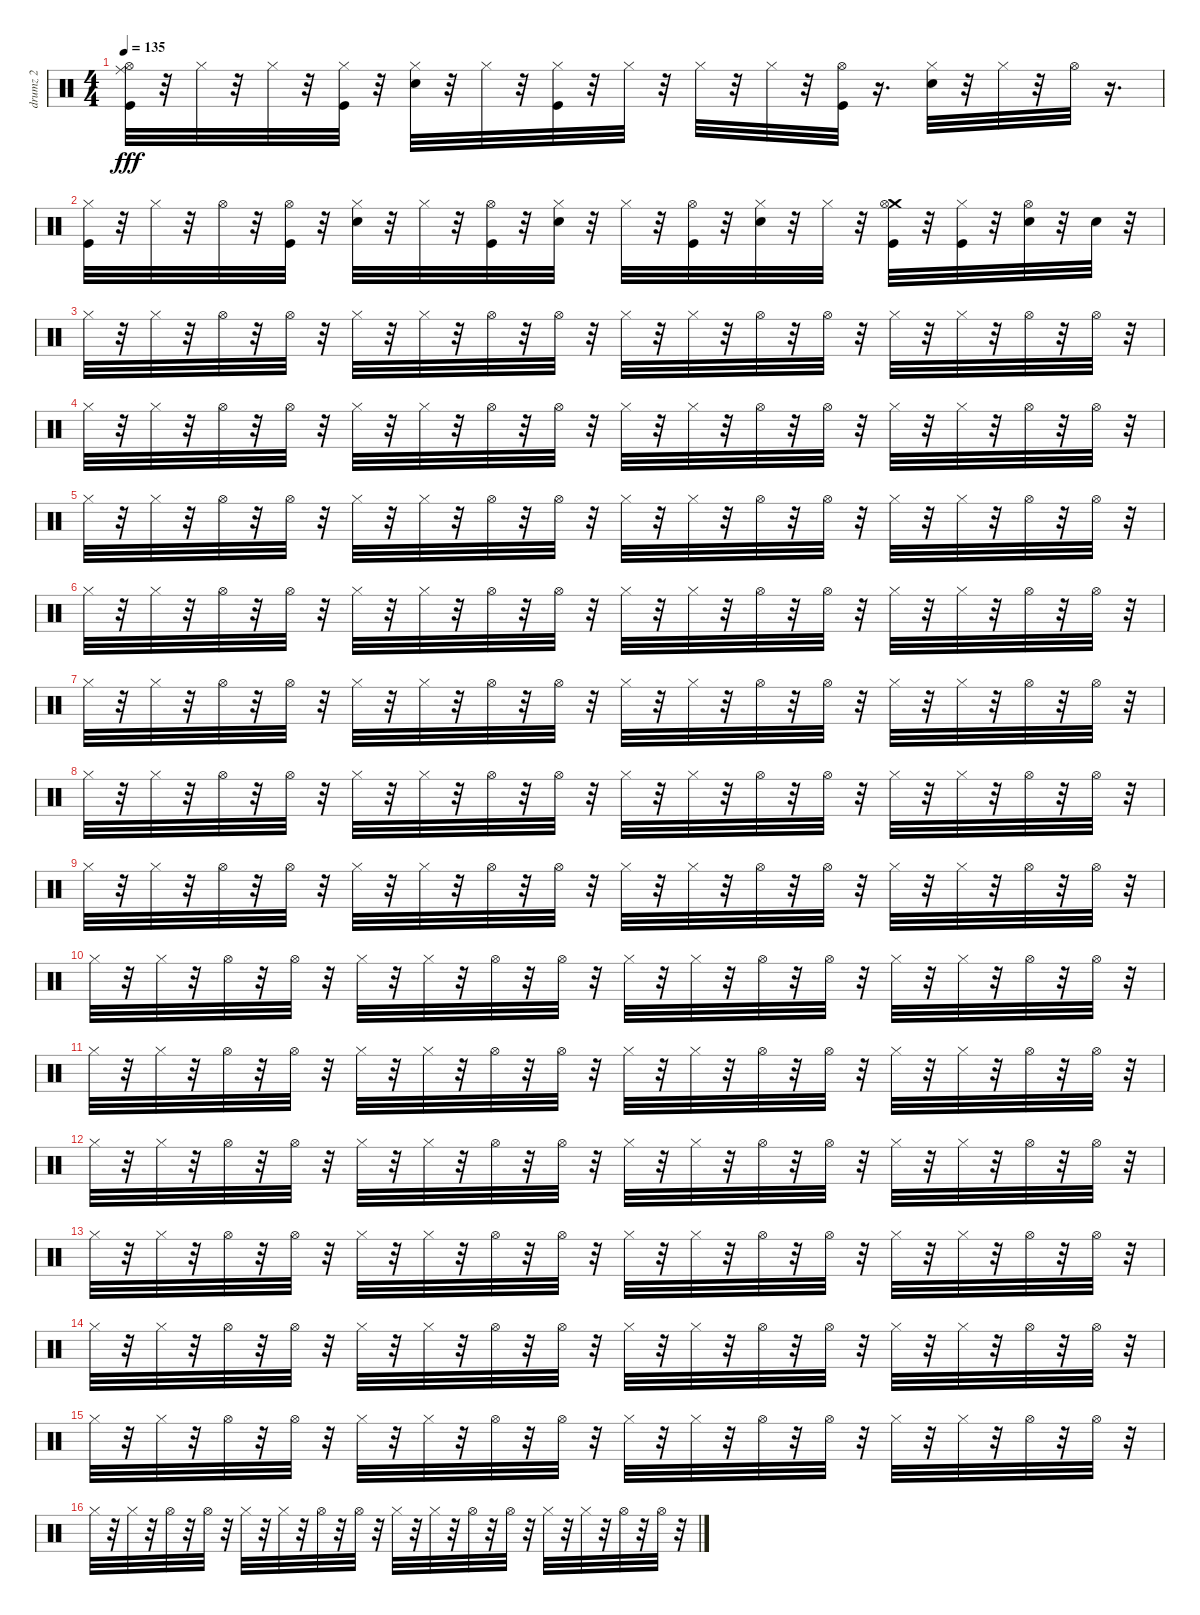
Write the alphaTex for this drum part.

\track ("drumz 2" "drumz 2") {instrument percussion}
\staff {score}
\articulation defaults
\ts (4 4)
\tempo 135
\clef neutral
\ks c
("Ride (middle)" "Hi-Hat (open)" "Kick (hit)").32{dy fff} r.32 "Hi-Hat (closed)".32 r.32 "Hi-Hat (closed)".32 r.32 ("Hi-Hat (closed)" "Kick (hit)").32 r.32 ("Hi-Hat (closed)" "Electric Snare (hit)").32 r.32 "Hi-Hat (closed)".32 r.32 ("Kick (hit)" "Hi-Hat (closed)").32 r.32 "Hi-Hat (closed)".32 r.32 "Hi-Hat (closed)".32 r.32 "Hi-Hat (closed)".32 r.32 ("Kick (hit)" "Hi-Hat (open)").32 r.16{d} ("Electric Snare (hit)" "Hi-Hat (closed)").32 r.32 "Hi-Hat (closed)".32 r.32 "Hi-Hat (open)".32 r.16{d} |
("Hi-Hat (closed)" "Kick (hit)").32 r.32 "Hi-Hat (closed)".32 r.32 "Hi-Hat (open)".32 r.32 ("Hi-Hat (open)" "Kick (hit)").32 r.32 ("Hi-Hat (closed)" "Electric Snare (hit)").32 r.32 "Hi-Hat (closed)".32 r.32 ("Kick (hit)" "Hi-Hat (open)").32 r.32 ("Electric Snare (hit)" "Hi-Hat (closed)").32 r.32 "Hi-Hat (closed)".32 r.32 ("Hi-Hat (open)" "Kick (hit)").32 r.32 ("Hi-Hat (closed)" "Electric Snare (hit)").32 r.32 "Hi-Hat (closed)".32 r.32 ("Crash medium (hit)" "Hi-Hat (open)" "Kick (hit)").32 r.32 ("Hi-Hat (closed)" "Kick (hit)").32 r.32 ("Hi-Hat (open)" "Electric Snare (hit)").32 r.32 "Electric Snare (hit)".32 r.32 |
"Hi-Hat (closed)".32{balance 0} r.32 "Hi-Hat (closed)".32{balance 0} r.32 "Hi-Hat (open)".32{balance 1} r.32 "Hi-Hat (open)".32{balance 1} r.32 "Hi-Hat (closed)".32{balance 2} r.32 "Hi-Hat (closed)".32{balance 2} r.32 "Hi-Hat (open)".32{balance 3} r.32 "Hi-Hat (open)".32{balance 3} r.32 "Hi-Hat (closed)".32{balance 4} r.32 "Hi-Hat (closed)".32{balance 4} r.32 "Hi-Hat (open)".32{balance 5} r.32 "Hi-Hat (open)".32{balance 5} r.32 "Hi-Hat (closed)".32{balance 6} r.32 "Hi-Hat (closed)".32{balance 6} r.32 "Hi-Hat (open)".32{balance 7} r.32 "Hi-Hat (open)".32{balance 7} r.32 |
"Hi-Hat (closed)".32{balance 8} r.32 "Hi-Hat (closed)".32{balance 8} r.32 "Hi-Hat (open)".32{balance 9} r.32 "Hi-Hat (open)".32{balance 9} r.32 "Hi-Hat (closed)".32{balance 10} r.32 "Hi-Hat (closed)".32{balance 10} r.32 "Hi-Hat (open)".32{balance 11} r.32 "Hi-Hat (open)".32{balance 11} r.32 "Hi-Hat (closed)".32{balance 12} r.32 "Hi-Hat (closed)".32{balance 12} r.32 "Hi-Hat (open)".32{balance 13} r.32 "Hi-Hat (open)".32{balance 13} r.32 "Hi-Hat (closed)".32{balance 14} r.32 "Hi-Hat (closed)".32{balance 14} r.32 "Hi-Hat (open)".32{balance 15} r.32 "Hi-Hat (open)".32{balance 15} r.32 |
"Hi-Hat (closed)".32{balance 16} r.32 "Hi-Hat (closed)".32{balance 16} r.32 "Hi-Hat (open)".32{balance 15} r.32 "Hi-Hat (open)".32{balance 14} r.32 "Hi-Hat (closed)".32{balance 14} r.32 "Hi-Hat (closed)".32{balance 14} r.32 "Hi-Hat (open)".32{balance 13} r.32 "Hi-Hat (open)".32{balance 13} r.32 "Hi-Hat (closed)".32{balance 12} r.32 "Hi-Hat (closed)".32{balance 12} r.32 "Hi-Hat (open)".32{balance 11} r.32 "Hi-Hat (open)".32{balance 11} r.32 "Hi-Hat (closed)".32{balance 10} r.32 "Hi-Hat (closed)".32{balance 10} r.32 "Hi-Hat (open)".32{balance 9} r.32 "Hi-Hat (open)".32{balance 9} r.32 |
"Hi-Hat (closed)".32{balance 8} r.32 "Hi-Hat (closed)".32{balance 8} r.32 "Hi-Hat (open)".32{balance 7} r.32 "Hi-Hat (open)".32{balance 7} r.32 "Hi-Hat (closed)".32{balance 6} r.32 "Hi-Hat (closed)".32{balance 6} r.32 "Hi-Hat (open)".32{balance 5} r.32 "Hi-Hat (open)".32{balance 5} r.32 "Hi-Hat (closed)".32{balance 4} r.32 "Hi-Hat (closed)".32{balance 4} r.32 "Hi-Hat (open)".32{balance 3} r.32 "Hi-Hat (open)".32{balance 3} r.32 "Hi-Hat (closed)".32{balance 2} r.32 "Hi-Hat (closed)".32{balance 2} r.32 "Hi-Hat (open)".32{balance 1} r.32 "Hi-Hat (open)".32{balance 1} r.32 |
"Hi-Hat (closed)".32{balance 0} r.32 "Hi-Hat (closed)".32{balance 0} r.32 "Hi-Hat (open)".32{balance 1} r.32 "Hi-Hat (open)".32{balance 1} r.32 "Hi-Hat (closed)".32{balance 2} r.32 "Hi-Hat (closed)".32{balance 2} r.32 "Hi-Hat (open)".32{balance 3} r.32 "Hi-Hat (open)".32{balance 3} r.32 "Hi-Hat (closed)".32{balance 4} r.32 "Hi-Hat (closed)".32{balance 4} r.32 "Hi-Hat (open)".32{balance 5} r.32 "Hi-Hat (open)".32{balance 5} r.32 "Hi-Hat (closed)".32{balance 6} r.32 "Hi-Hat (closed)".32{balance 6} r.32 "Hi-Hat (open)".32{balance 7} r.32 "Hi-Hat (open)".32{balance 7} r.32 |
"Hi-Hat (closed)".32{balance 8} r.32 "Hi-Hat (closed)".32{balance 8} r.32 "Hi-Hat (open)".32{balance 9} r.32 "Hi-Hat (open)".32{balance 9} r.32 "Hi-Hat (closed)".32{balance 10} r.32 "Hi-Hat (closed)".32{balance 10} r.32 "Hi-Hat (open)".32{balance 11} r.32 "Hi-Hat (open)".32{balance 11} r.32 "Hi-Hat (closed)".32{balance 12} r.32 "Hi-Hat (closed)".32{balance 12} r.32 "Hi-Hat (open)".32{balance 13} r.32 "Hi-Hat (open)".32{balance 13} r.32 "Hi-Hat (closed)".32{balance 14} r.32 "Hi-Hat (closed)".32{balance 14} r.32 "Hi-Hat (open)".32{balance 15} r.32 "Hi-Hat (open)".32{balance 15} r.32 |
"Hi-Hat (closed)".32{balance 16} r.32 "Hi-Hat (closed)".32{balance 16} r.32 "Hi-Hat (open)".32{balance 15} r.32 "Hi-Hat (open)".32{balance 14} r.32 "Hi-Hat (closed)".32{balance 14} r.32 "Hi-Hat (closed)".32{balance 14} r.32 "Hi-Hat (open)".32{balance 13} r.32 "Hi-Hat (open)".32{balance 13} r.32 "Hi-Hat (closed)".32{balance 12} r.32 "Hi-Hat (closed)".32{balance 12} r.32 "Hi-Hat (open)".32{balance 11} r.32 "Hi-Hat (open)".32{balance 11} r.32 "Hi-Hat (closed)".32{balance 10} r.32 "Hi-Hat (closed)".32{balance 10} r.32 "Hi-Hat (open)".32{balance 9} r.32 "Hi-Hat (open)".32{balance 9} r.32 |
"Hi-Hat (closed)".32{balance 8} r.32 "Hi-Hat (closed)".32{balance 8} r.32 "Hi-Hat (open)".32{balance 7} r.32 "Hi-Hat (open)".32{balance 7} r.32 "Hi-Hat (closed)".32{balance 6} r.32 "Hi-Hat (closed)".32{balance 6} r.32 "Hi-Hat (open)".32{balance 5} r.32 "Hi-Hat (open)".32{balance 5} r.32 "Hi-Hat (closed)".32{balance 4} r.32 "Hi-Hat (closed)".32{balance 4} r.32 "Hi-Hat (open)".32{balance 3} r.32 "Hi-Hat (open)".32{balance 3} r.32 "Hi-Hat (closed)".32{balance 2} r.32 "Hi-Hat (closed)".32{balance 2} r.32 "Hi-Hat (open)".32{balance 1} r.32 "Hi-Hat (open)".32{balance 1} r.32 |
"Hi-Hat (closed)".32{balance 0} r.32 "Hi-Hat (closed)".32{balance 0} r.32 "Hi-Hat (open)".32{balance 1} r.32 "Hi-Hat (open)".32{balance 1} r.32 "Hi-Hat (closed)".32{balance 2} r.32 "Hi-Hat (closed)".32{balance 2} r.32 "Hi-Hat (open)".32{balance 3} r.32 "Hi-Hat (open)".32{balance 3} r.32 "Hi-Hat (closed)".32{balance 4} r.32 "Hi-Hat (closed)".32{balance 4} r.32 "Hi-Hat (open)".32{balance 5} r.32 "Hi-Hat (open)".32{balance 5} r.32 "Hi-Hat (closed)".32{balance 6} r.32 "Hi-Hat (closed)".32{balance 6} r.32 "Hi-Hat (open)".32{balance 7} r.32 "Hi-Hat (open)".32{balance 7} r.32 |
"Hi-Hat (closed)".32{balance 8} r.32 "Hi-Hat (closed)".32{balance 8} r.32 "Hi-Hat (open)".32{balance 9} r.32 "Hi-Hat (open)".32{balance 9} r.32 "Hi-Hat (closed)".32{balance 10} r.32 "Hi-Hat (closed)".32{balance 10} r.32 "Hi-Hat (open)".32{balance 11} r.32 "Hi-Hat (open)".32{balance 11} r.32 "Hi-Hat (closed)".32{balance 12} r.32 "Hi-Hat (closed)".32{balance 12} r.32 "Hi-Hat (open)".32{balance 13} r.32 "Hi-Hat (open)".32{balance 13} r.32 "Hi-Hat (closed)".32{balance 14} r.32 "Hi-Hat (closed)".32{balance 14} r.32 "Hi-Hat (open)".32{balance 15} r.32 "Hi-Hat (open)".32{balance 15} r.32 |
"Hi-Hat (closed)".32{balance 16} r.32 "Hi-Hat (closed)".32{balance 16} r.32 "Hi-Hat (open)".32{balance 15} r.32 "Hi-Hat (open)".32{balance 14} r.32 "Hi-Hat (closed)".32{balance 14} r.32 "Hi-Hat (closed)".32{balance 14} r.32 "Hi-Hat (open)".32{balance 13} r.32 "Hi-Hat (open)".32{balance 13} r.32 "Hi-Hat (closed)".32{balance 12} r.32 "Hi-Hat (closed)".32{balance 12} r.32 "Hi-Hat (open)".32{balance 11} r.32 "Hi-Hat (open)".32{balance 11} r.32 "Hi-Hat (closed)".32{balance 10} r.32 "Hi-Hat (closed)".32{balance 10} r.32 "Hi-Hat (open)".32{balance 9} r.32 "Hi-Hat (open)".32{balance 9} r.32 |
"Hi-Hat (closed)".32{balance 8} r.32 "Hi-Hat (closed)".32{balance 8} r.32 "Hi-Hat (open)".32{balance 7} r.32 "Hi-Hat (open)".32{balance 7} r.32 "Hi-Hat (closed)".32{balance 6} r.32 "Hi-Hat (closed)".32{balance 6} r.32 "Hi-Hat (open)".32{balance 5} r.32 "Hi-Hat (open)".32{balance 5} r.32 "Hi-Hat (closed)".32{balance 4} r.32 "Hi-Hat (closed)".32{balance 4} r.32 "Hi-Hat (open)".32{balance 3} r.32 "Hi-Hat (open)".32{balance 3} r.32 "Hi-Hat (closed)".32{balance 2} r.32 "Hi-Hat (closed)".32{balance 2} r.32 "Hi-Hat (open)".32{balance 1} r.32 "Hi-Hat (open)".32{balance 1} r.32 |
"Hi-Hat (closed)".32{balance 0} r.32 "Hi-Hat (closed)".32{balance 0} r.32 "Hi-Hat (open)".32{balance 1} r.32 "Hi-Hat (open)".32{balance 1} r.32 "Hi-Hat (closed)".32{balance 2} r.32 "Hi-Hat (closed)".32{balance 2} r.32 "Hi-Hat (open)".32{balance 3} r.32 "Hi-Hat (open)".32{balance 3} r.32 "Hi-Hat (closed)".32{balance 4} r.32 "Hi-Hat (closed)".32{balance 4} r.32 "Hi-Hat (open)".32{balance 5} r.32 "Hi-Hat (open)".32{balance 5} r.32 "Hi-Hat (closed)".32{balance 6} r.32 "Hi-Hat (closed)".32{balance 6} r.32 "Hi-Hat (open)".32{balance 7} r.32 "Hi-Hat (open)".32{balance 7} r.32 |
"Hi-Hat (closed)".32{balance 8} r.32 "Hi-Hat (closed)".32{balance 8} r.32 "Hi-Hat (open)".32{balance 9} r.32 "Hi-Hat (open)".32{balance 9} r.32 "Hi-Hat (closed)".32{balance 10} r.32 "Hi-Hat (closed)".32{balance 10} r.32 "Hi-Hat (open)".32{balance 11} r.32 "Hi-Hat (open)".32{balance 11} r.32 "Hi-Hat (closed)".32{balance 12} r.32 "Hi-Hat (closed)".32{balance 12} r.32 "Hi-Hat (open)".32{balance 13} r.32 "Hi-Hat (open)".32{balance 13} r.32 "Hi-Hat (closed)".32{balance 14} r.32 "Hi-Hat (closed)".32{balance 14} r.32 "Hi-Hat (open)".32{balance 15} r.32 "Hi-Hat (open)".32{balance 15} r.32
